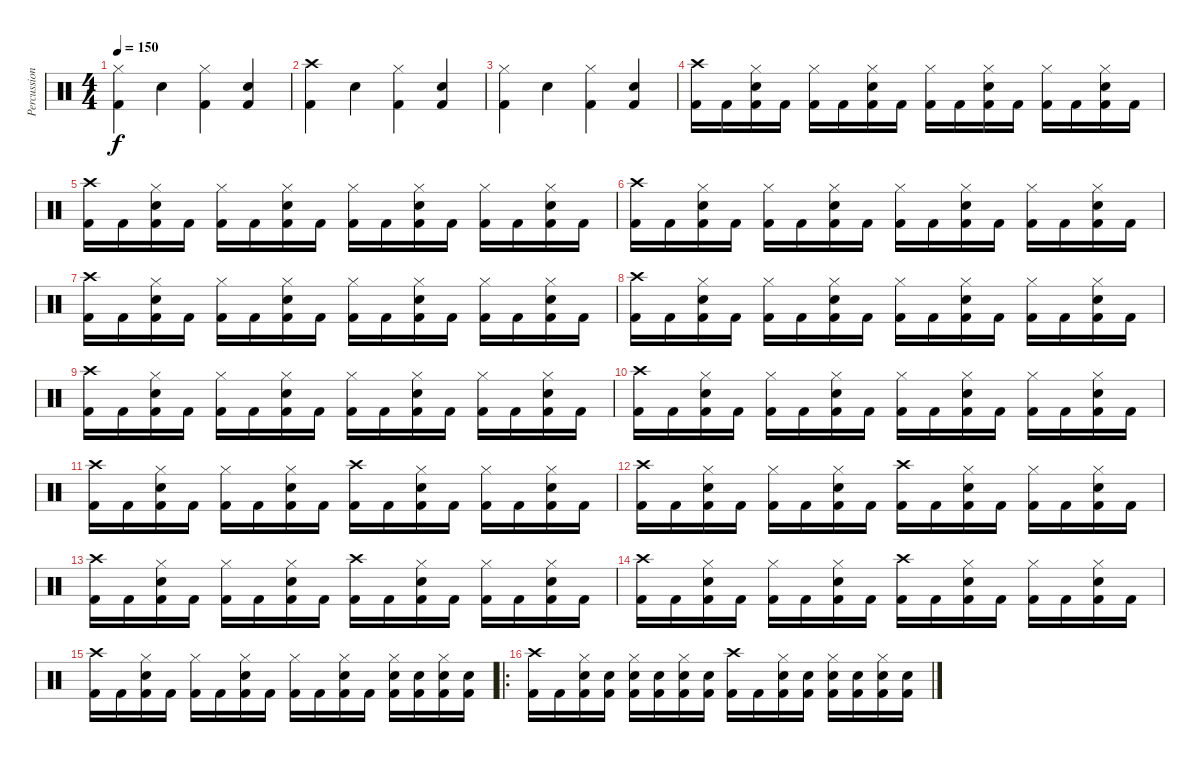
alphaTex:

\track ("Percussion" "Percussion") {instrument percussion}
\staff {score}
\articulation defaults
\ts (4 4)
\tempo 150
\clef neutral
\ks c
("Hi-Hat (closed)" "Kick (hit) 2").4{dy f} "Snare (hit) 2".4 ("Hi-Hat (closed)" "Kick (hit) 2").4 ("Snare (hit) 2" "Kick (hit) 2").4 |
("Crash high (hit)" "Kick (hit) 2").4 "Snare (hit) 2".4 ("Hi-Hat (closed)" "Kick (hit) 2").4 ("Snare (hit) 2" "Kick (hit) 2").4 |
("Hi-Hat (closed)" "Kick (hit) 2").4 "Snare (hit) 2".4 ("Hi-Hat (closed)" "Kick (hit) 2").4 ("Snare (hit) 2" "Kick (hit) 2").4 |
("Crash high (hit)" "Kick (hit) 2").16 "Kick (hit) 2".16 ("Hi-Hat (closed)" "Snare (hit) 2" "Kick (hit) 2").16 "Kick (hit) 2".16 ("Hi-Hat (closed)" "Kick (hit) 2").16 "Kick (hit) 2".16 ("Hi-Hat (closed)" "Snare (hit) 2" "Kick (hit) 2").16 "Kick (hit) 2".16 ("Hi-Hat (closed)" "Kick (hit) 2").16 "Kick (hit) 2".16 ("Hi-Hat (closed)" "Snare (hit) 2" "Kick (hit) 2").16 "Kick (hit) 2".16 ("Hi-Hat (closed)" "Kick (hit) 2").16 "Kick (hit) 2".16 ("Hi-Hat (closed)" "Snare (hit) 2" "Kick (hit) 2").16 "Kick (hit) 2".16 |
("Crash high (hit)" "Kick (hit) 2").16 "Kick (hit) 2".16 ("Hi-Hat (closed)" "Snare (hit) 2" "Kick (hit) 2").16 "Kick (hit) 2".16 ("Hi-Hat (closed)" "Kick (hit) 2").16 "Kick (hit) 2".16 ("Hi-Hat (closed)" "Snare (hit) 2" "Kick (hit) 2").16 "Kick (hit) 2".16 ("Hi-Hat (closed)" "Kick (hit) 2").16 "Kick (hit) 2".16 ("Hi-Hat (closed)" "Snare (hit) 2" "Kick (hit) 2").16 "Kick (hit) 2".16 ("Hi-Hat (closed)" "Kick (hit) 2").16 "Kick (hit) 2".16 ("Hi-Hat (closed)" "Snare (hit) 2" "Kick (hit) 2").16 "Kick (hit) 2".16 |
("Crash high (hit)" "Kick (hit) 2").16 "Kick (hit) 2".16 ("Hi-Hat (closed)" "Snare (hit) 2" "Kick (hit) 2").16 "Kick (hit) 2".16 ("Hi-Hat (closed)" "Kick (hit) 2").16 "Kick (hit) 2".16 ("Hi-Hat (closed)" "Snare (hit) 2" "Kick (hit) 2").16 "Kick (hit) 2".16 ("Hi-Hat (closed)" "Kick (hit) 2").16 "Kick (hit) 2".16 ("Hi-Hat (closed)" "Snare (hit) 2" "Kick (hit) 2").16 "Kick (hit) 2".16 ("Hi-Hat (closed)" "Kick (hit) 2").16 "Kick (hit) 2".16 ("Hi-Hat (closed)" "Snare (hit) 2" "Kick (hit) 2").16 "Kick (hit) 2".16 |
("Crash high (hit)" "Kick (hit) 2").16 "Kick (hit) 2".16 ("Hi-Hat (closed)" "Snare (hit) 2" "Kick (hit) 2").16 "Kick (hit) 2".16 ("Hi-Hat (closed)" "Kick (hit) 2").16 "Kick (hit) 2".16 ("Hi-Hat (closed)" "Snare (hit) 2" "Kick (hit) 2").16 "Kick (hit) 2".16 ("Hi-Hat (closed)" "Kick (hit) 2").16 "Kick (hit) 2".16 ("Hi-Hat (closed)" "Snare (hit) 2" "Kick (hit) 2").16 "Kick (hit) 2".16 ("Hi-Hat (closed)" "Kick (hit) 2").16 "Kick (hit) 2".16 ("Hi-Hat (closed)" "Snare (hit) 2" "Kick (hit) 2").16 "Kick (hit) 2".16 |
("Crash high (hit)" "Kick (hit) 2").16 "Kick (hit) 2".16 ("Hi-Hat (closed)" "Snare (hit) 2" "Kick (hit) 2").16 "Kick (hit) 2".16 ("Hi-Hat (closed)" "Kick (hit) 2").16 "Kick (hit) 2".16 ("Hi-Hat (closed)" "Snare (hit) 2" "Kick (hit) 2").16 "Kick (hit) 2".16 ("Hi-Hat (closed)" "Kick (hit) 2").16 "Kick (hit) 2".16 ("Hi-Hat (closed)" "Snare (hit) 2" "Kick (hit) 2").16 "Kick (hit) 2".16 ("Hi-Hat (closed)" "Kick (hit) 2").16 "Kick (hit) 2".16 ("Hi-Hat (closed)" "Snare (hit) 2" "Kick (hit) 2").16 "Kick (hit) 2".16 |
("Crash high (hit)" "Kick (hit) 2").16 "Kick (hit) 2".16 ("Hi-Hat (closed)" "Snare (hit) 2" "Kick (hit) 2").16 "Kick (hit) 2".16 ("Hi-Hat (closed)" "Kick (hit) 2").16 "Kick (hit) 2".16 ("Hi-Hat (closed)" "Snare (hit) 2" "Kick (hit) 2").16 "Kick (hit) 2".16 ("Hi-Hat (closed)" "Kick (hit) 2").16 "Kick (hit) 2".16 ("Hi-Hat (closed)" "Snare (hit) 2" "Kick (hit) 2").16 "Kick (hit) 2".16 ("Hi-Hat (closed)" "Kick (hit) 2").16 "Kick (hit) 2".16 ("Hi-Hat (closed)" "Snare (hit) 2" "Kick (hit) 2").16 "Kick (hit) 2".16 |
("Crash high (hit)" "Kick (hit) 2").16 "Kick (hit) 2".16 ("Hi-Hat (closed)" "Snare (hit) 2" "Kick (hit) 2").16 "Kick (hit) 2".16 ("Hi-Hat (closed)" "Kick (hit) 2").16 "Kick (hit) 2".16 ("Hi-Hat (closed)" "Snare (hit) 2" "Kick (hit) 2").16 "Kick (hit) 2".16 ("Hi-Hat (closed)" "Kick (hit) 2").16 "Kick (hit) 2".16 ("Hi-Hat (closed)" "Snare (hit) 2" "Kick (hit) 2").16 "Kick (hit) 2".16 ("Hi-Hat (closed)" "Kick (hit) 2").16 "Kick (hit) 2".16 ("Hi-Hat (closed)" "Snare (hit) 2" "Kick (hit) 2").16 "Kick (hit) 2".16 |
("Crash high (hit)" "Kick (hit) 2").16 "Kick (hit) 2".16 ("Hi-Hat (closed)" "Snare (hit) 2" "Kick (hit) 2").16 "Kick (hit) 2".16 ("Hi-Hat (closed)" "Kick (hit) 2").16 "Kick (hit) 2".16 ("Hi-Hat (closed)" "Snare (hit) 2" "Kick (hit) 2").16 "Kick (hit) 2".16 ("Crash high (hit)" "Kick (hit) 2").16 "Kick (hit) 2".16 ("Hi-Hat (closed)" "Snare (hit) 2" "Kick (hit) 2").16 "Kick (hit) 2".16 ("Hi-Hat (closed)" "Kick (hit) 2").16 "Kick (hit) 2".16 ("Hi-Hat (closed)" "Snare (hit) 2" "Kick (hit) 2").16 "Kick (hit) 2".16 |
("Crash high (hit)" "Kick (hit) 2").16 "Kick (hit) 2".16 ("Hi-Hat (closed)" "Snare (hit) 2" "Kick (hit) 2").16 "Kick (hit) 2".16 ("Hi-Hat (closed)" "Kick (hit) 2").16 "Kick (hit) 2".16 ("Hi-Hat (closed)" "Snare (hit) 2" "Kick (hit) 2").16 "Kick (hit) 2".16 ("Crash high (hit)" "Kick (hit) 2").16 "Kick (hit) 2".16 ("Hi-Hat (closed)" "Snare (hit) 2" "Kick (hit) 2").16 "Kick (hit) 2".16 ("Hi-Hat (closed)" "Kick (hit) 2").16 "Kick (hit) 2".16 ("Hi-Hat (closed)" "Snare (hit) 2" "Kick (hit) 2").16 "Kick (hit) 2".16 |
("Crash high (hit)" "Kick (hit) 2").16 "Kick (hit) 2".16 ("Hi-Hat (closed)" "Snare (hit) 2" "Kick (hit) 2").16 "Kick (hit) 2".16 ("Hi-Hat (closed)" "Kick (hit) 2").16 "Kick (hit) 2".16 ("Hi-Hat (closed)" "Snare (hit) 2" "Kick (hit) 2").16 "Kick (hit) 2".16 ("Crash high (hit)" "Kick (hit) 2").16 "Kick (hit) 2".16 ("Hi-Hat (closed)" "Snare (hit) 2" "Kick (hit) 2").16 "Kick (hit) 2".16 ("Hi-Hat (closed)" "Kick (hit) 2").16 "Kick (hit) 2".16 ("Hi-Hat (closed)" "Snare (hit) 2" "Kick (hit) 2").16 "Kick (hit) 2".16 |
("Crash high (hit)" "Kick (hit) 2").16 "Kick (hit) 2".16 ("Hi-Hat (closed)" "Snare (hit) 2" "Kick (hit) 2").16 "Kick (hit) 2".16 ("Hi-Hat (closed)" "Kick (hit) 2").16 "Kick (hit) 2".16 ("Hi-Hat (closed)" "Snare (hit) 2" "Kick (hit) 2").16 "Kick (hit) 2".16 ("Crash high (hit)" "Kick (hit) 2").16 "Kick (hit) 2".16 ("Hi-Hat (closed)" "Snare (hit) 2" "Kick (hit) 2").16 "Kick (hit) 2".16 ("Hi-Hat (closed)" "Kick (hit) 2").16 "Kick (hit) 2".16 ("Hi-Hat (closed)" "Snare (hit) 2" "Kick (hit) 2").16 "Kick (hit) 2".16 |
("Crash high (hit)" "Kick (hit) 2").16 "Kick (hit) 2".16 ("Hi-Hat (closed)" "Snare (hit) 2" "Kick (hit) 2").16 "Kick (hit) 2".16 ("Hi-Hat (closed)" "Kick (hit) 2").16 "Kick (hit) 2".16 ("Hi-Hat (closed)" "Snare (hit) 2" "Kick (hit) 2").16 "Kick (hit) 2".16 ("Hi-Hat (closed)" "Kick (hit) 2").16 "Kick (hit) 2".16 ("Hi-Hat (closed)" "Snare (hit) 2" "Kick (hit) 2").16 "Kick (hit) 2".16 ("Hi-Hat (closed)" "Snare (hit) 2" "Kick (hit) 2").16 ("Snare (hit) 2" "Kick (hit) 2").16 ("Hi-Hat (closed)" "Snare (hit) 2" "Kick (hit) 2").16 ("Snare (hit) 2" "Kick (hit) 2").16 |
\ro
("Crash high (hit)" "Kick (hit) 2").16 "Kick (hit) 2".16 ("Hi-Hat (closed)" "Snare (hit) 2" "Kick (hit) 2").16 ("Snare (hit) 2" "Kick (hit) 2").16 ("Hi-Hat (closed)" "Snare (hit) 2" "Kick (hit) 2").16 ("Snare (hit) 2" "Kick (hit) 2").16 ("Hi-Hat (closed)" "Snare (hit) 2" "Kick (hit) 2").16 ("Snare (hit) 2" "Kick (hit) 2").16 ("Crash high (hit)" "Kick (hit) 2").16 "Kick (hit) 2".16 ("Hi-Hat (closed)" "Snare (hit) 2" "Kick (hit) 2").16 ("Snare (hit) 2" "Kick (hit) 2").16 ("Hi-Hat (closed)" "Snare (hit) 2" "Kick (hit) 2").16 ("Snare (hit) 2" "Kick (hit) 2").16 ("Hi-Hat (closed)" "Snare (hit) 2" "Kick (hit) 2").16 ("Snare (hit) 2" "Kick (hit) 2").16
